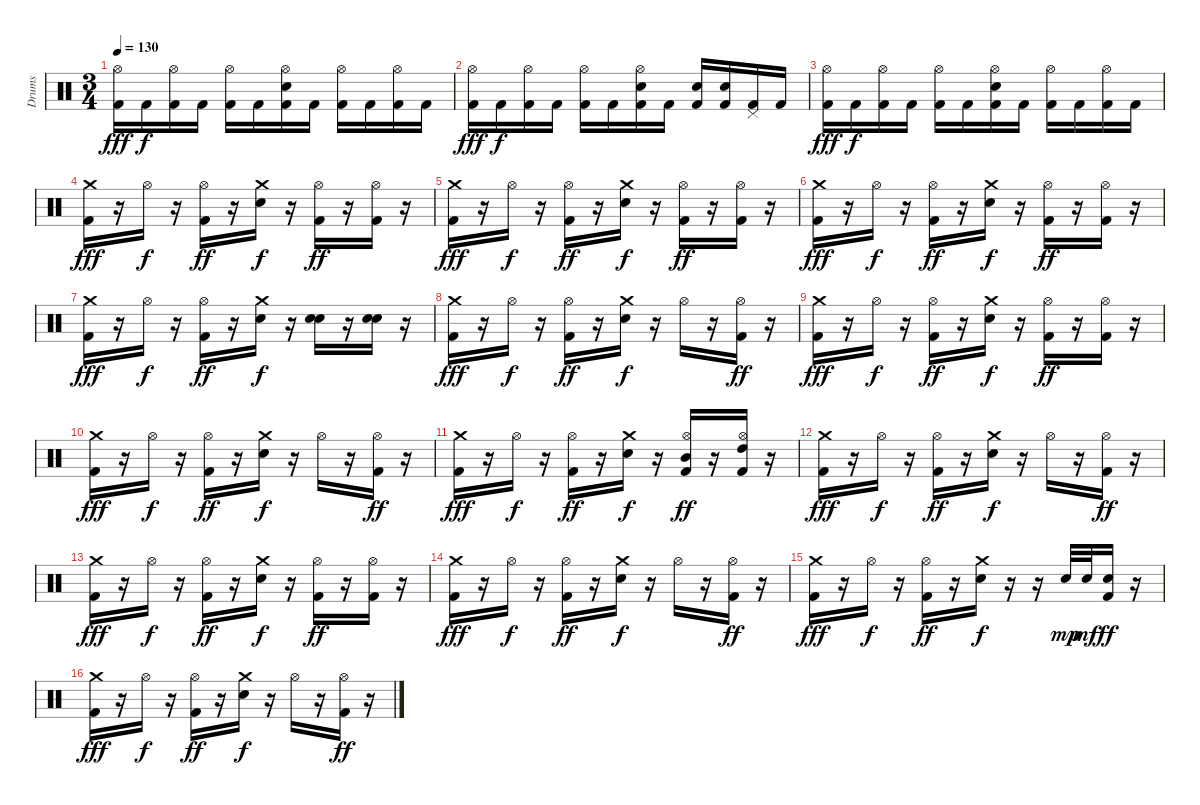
\track ("Drums" "Drums") {instrument percussion}
\staff {score}
\articulation defaults
\ts (3 4)
\tempo 130
\clef neutral
\ks c
("Kick (hit) 2" "Hi-Hat (open)").16{dy fff} "Kick (hit) 2".16{dy f} ("Kick (hit) 2" "Hi-Hat (open)").16 "Kick (hit) 2".16 ("Kick (hit) 2" "Hi-Hat (open)").16 "Kick (hit) 2".16 ("Kick (hit) 2" "Electric Snare (hit)" "Hi-Hat (open)").16 "Kick (hit) 2".16 ("Kick (hit) 2" "Hi-Hat (open)").16 "Kick (hit) 2".16 ("Kick (hit) 2" "Hi-Hat (open)").16 "Kick (hit) 2".16 |
("Kick (hit) 2" "Hi-Hat (open)").16{dy fff} "Kick (hit) 2".16{dy f} ("Kick (hit) 2" "Hi-Hat (open)").16 "Kick (hit) 2".16 ("Kick (hit) 2" "Hi-Hat (open)").16 "Kick (hit) 2".16 ("Kick (hit) 2" "Electric Snare (hit)" "Hi-Hat (open)").16 "Kick (hit) 2".16 ("Kick (hit) 2" "Electric Snare (hit)").16 ("Kick (hit) 2" "Electric Snare (hit)").16 ("Kick (hit) 2" "Pedal Hi-Hat (hit)").16 "Kick (hit) 2".16 |
("Kick (hit) 2" "Hi-Hat (open)").16{dy fff} "Kick (hit) 2".16{dy f} ("Kick (hit) 2" "Hi-Hat (open)").16 "Kick (hit) 2".16 ("Kick (hit) 2" "Hi-Hat (open)").16 "Kick (hit) 2".16 ("Kick (hit) 2" "Electric Snare (hit)" "Hi-Hat (open)").16 "Kick (hit) 2".16 ("Kick (hit) 2" "Hi-Hat (open)").16 "Kick (hit) 2".16 ("Kick (hit) 2" "Hi-Hat (open)").16 "Kick (hit) 2".16 |
("Kick (hit) 2" "Crash medium (hit)").16{dy fff} r.16 "Hi-Hat (open)".16{dy f} r.16 ("Kick (hit) 2" "Hi-Hat (open)").16{dy ff} r.16 ("Electric Snare (hit)" "Crash medium (hit)").16{dy f} r.16 ("Kick (hit) 2" "Hi-Hat (open)").16{dy ff} r.16 ("Kick (hit) 2" "Hi-Hat (open)").16 r.16 |
("Kick (hit) 2" "Crash medium (hit)").16{dy fff} r.16 "Hi-Hat (open)".16{dy f} r.16 ("Kick (hit) 2" "Hi-Hat (open)").16{dy ff} r.16 ("Electric Snare (hit)" "Crash medium (hit)").16{dy f} r.16 ("Kick (hit) 2" "Hi-Hat (open)").16{dy ff} r.16 ("Kick (hit) 2" "Hi-Hat (open)").16 r.16 |
("Kick (hit) 2" "Crash medium (hit)").16{dy fff} r.16 "Hi-Hat (open)".16{dy f} r.16 ("Kick (hit) 2" "Hi-Hat (open)").16{dy ff} r.16 ("Electric Snare (hit)" "Crash medium (hit)").16{dy f} r.16 ("Kick (hit) 2" "Hi-Hat (open)").16{dy ff} r.16 ("Kick (hit) 2" "Hi-Hat (open)").16 r.16 |
("Kick (hit) 2" "Crash medium (hit)").16{dy fff} r.16 "Hi-Hat (open)".16{dy f} r.16 ("Kick (hit) 2" "Hi-Hat (open)").16{dy ff} r.16 ("Electric Snare (hit)" "Crash medium (hit)").16{dy f} r.16 ("Snare (hit) 2" "Electric Snare (hit)").16 r.16 ("Snare (hit) 2" "Electric Snare (hit)").16 r.16 |
("Kick (hit) 2" "Crash medium (hit)").16{dy fff} r.16 "Hi-Hat (open)".16{dy f} r.16 ("Kick (hit) 2" "Hi-Hat (open)").16{dy ff} r.16 ("Electric Snare (hit)" "Crash medium (hit)").16{dy f} r.16 "Hi-Hat (open)".16 r.16 ("Kick (hit) 2" "Hi-Hat (open)").16{dy ff} r.16 |
("Kick (hit) 2" "Crash medium (hit)").16{dy fff} r.16 "Hi-Hat (open)".16{dy f} r.16 ("Kick (hit) 2" "Hi-Hat (open)").16{dy ff} r.16 ("Electric Snare (hit)" "Crash medium (hit)").16{dy f} r.16 ("Kick (hit) 2" "Hi-Hat (open)").16{dy ff} r.16 ("Kick (hit) 2" "Hi-Hat (open)").16 r.16 |
("Kick (hit) 2" "Crash medium (hit)").16{dy fff} r.16 "Hi-Hat (open)".16{dy f} r.16 ("Kick (hit) 2" "Hi-Hat (open)").16{dy ff} r.16 ("Electric Snare (hit)" "Crash medium (hit)").16{dy f} r.16 "Hi-Hat (open)".16 r.16 ("Kick (hit) 2" "Hi-Hat (open)").16{dy ff} r.16 |
("Kick (hit) 2" "Crash medium (hit)").16{dy fff} r.16 "Hi-Hat (open)".16{dy f} r.16 ("Kick (hit) 2" "Hi-Hat (open)").16{dy ff} r.16 ("Electric Snare (hit)" "Crash medium (hit)").16{dy f} r.16 ("Kick (hit) 2" "Mid Tom (hit)" "Hi-Hat (open)").16{dy ff} r.16 ("Kick (hit) 2" "High Tom (hit)" "Hi-Hat (open)").16 r.16 |
("Kick (hit) 2" "Crash medium (hit)").16{dy fff} r.16 "Hi-Hat (open)".16{dy f} r.16 ("Kick (hit) 2" "Hi-Hat (open)").16{dy ff} r.16 ("Electric Snare (hit)" "Crash medium (hit)").16{dy f} r.16 "Hi-Hat (open)".16 r.16 ("Kick (hit) 2" "Hi-Hat (open)").16{dy ff} r.16 |
("Kick (hit) 2" "Crash medium (hit)").16{dy fff} r.16 "Hi-Hat (open)".16{dy f} r.16 ("Kick (hit) 2" "Hi-Hat (open)").16{dy ff} r.16 ("Electric Snare (hit)" "Crash medium (hit)").16{dy f} r.16 ("Kick (hit) 2" "Hi-Hat (open)").16{dy ff} r.16 ("Kick (hit) 2" "Hi-Hat (open)").16 r.16 |
("Kick (hit) 2" "Crash medium (hit)").16{dy fff} r.16 "Hi-Hat (open)".16{dy f} r.16 ("Kick (hit) 2" "Hi-Hat (open)").16{dy ff} r.16 ("Electric Snare (hit)" "Crash medium (hit)").16{dy f} r.16 "Hi-Hat (open)".16 r.16 ("Kick (hit) 2" "Hi-Hat (open)").16{dy ff} r.16 |
("Kick (hit) 2" "Crash medium (hit)").16{dy fff} r.16 "Hi-Hat (open)".16{dy f} r.16 ("Kick (hit) 2" "Hi-Hat (open)").16{dy ff} r.16 ("Electric Snare (hit)" "Crash medium (hit)").16{dy f} r.16 r.16 "Electric Snare (hit)".32{dy mp} "Electric Snare (hit)".32{dy mf} ("Kick (hit) 2" "Electric Snare (hit)").16{dy ff} r.16 |
("Kick (hit) 2" "Crash medium (hit)").16{dy fff} r.16 "Hi-Hat (open)".16{dy f} r.16 ("Kick (hit) 2" "Hi-Hat (open)").16{dy ff} r.16 ("Electric Snare (hit)" "Crash medium (hit)").16{dy f} r.16 "Hi-Hat (open)".16 r.16 ("Kick (hit) 2" "Hi-Hat (open)").16{dy ff} r.16
